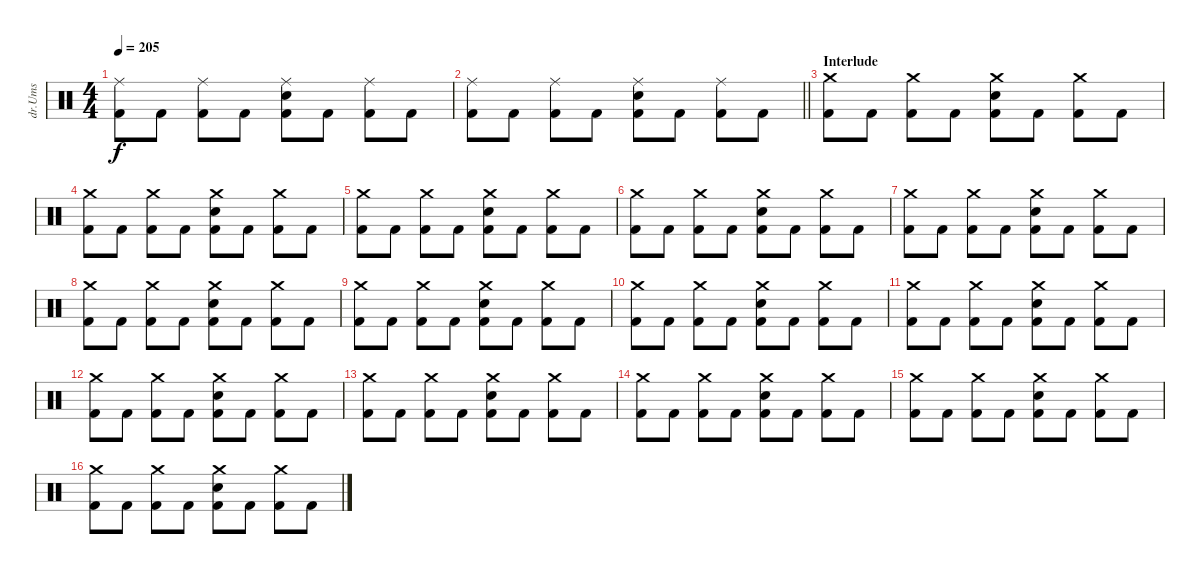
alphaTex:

\track ("dr.Ums" "dr.Ums") {instrument percussion}
\staff {score}
\articulation defaults
\ts (4 4)
\tempo 205
\clef neutral
\ks c
("Ride (middle)" "Kick (hit) 2").8{dy f} "Kick (hit) 2".8 ("Ride (middle)" "Kick (hit) 2").8 "Kick (hit) 2".8 ("Ride (middle)" "Snare (hit) 2" "Kick (hit) 2").8 "Kick (hit) 2".8 ("Ride (middle)" "Kick (hit) 2").8 "Kick (hit) 2".8 |
\barLineRight lightlight
("Ride (middle)" "Kick (hit) 2").8 "Kick (hit) 2".8 ("Ride (middle)" "Kick (hit) 2").8 "Kick (hit) 2".8 ("Ride (middle)" "Snare (hit) 2" "Kick (hit) 2").8 "Kick (hit) 2".8 ("Ride (middle)" "Kick (hit) 2").8 "Kick (hit) 2".8 |
\section ("" "Interlude")
("Crash medium (hit)" "Kick (hit) 2").8 "Kick (hit) 2".8 ("Crash medium (hit)" "Kick (hit) 2").8 "Kick (hit) 2".8 ("Crash medium (hit)" "Snare (hit) 2" "Kick (hit) 2").8 "Kick (hit) 2".8 ("Crash medium (hit)" "Kick (hit) 2").8 "Kick (hit) 2".8 |
("Crash medium (hit)" "Kick (hit) 2").8 "Kick (hit) 2".8 ("Crash medium (hit)" "Kick (hit) 2").8 "Kick (hit) 2".8 ("Crash medium (hit)" "Snare (hit) 2" "Kick (hit) 2").8 "Kick (hit) 2".8 ("Crash medium (hit)" "Kick (hit) 2").8 "Kick (hit) 2".8 |
("Crash medium (hit)" "Kick (hit) 2").8 "Kick (hit) 2".8 ("Crash medium (hit)" "Kick (hit) 2").8 "Kick (hit) 2".8 ("Crash medium (hit)" "Snare (hit) 2" "Kick (hit) 2").8 "Kick (hit) 2".8 ("Crash medium (hit)" "Kick (hit) 2").8 "Kick (hit) 2".8 |
("Crash medium (hit)" "Kick (hit) 2").8 "Kick (hit) 2".8 ("Crash medium (hit)" "Kick (hit) 2").8 "Kick (hit) 2".8 ("Crash medium (hit)" "Snare (hit) 2" "Kick (hit) 2").8 "Kick (hit) 2".8 ("Crash medium (hit)" "Kick (hit) 2").8 "Kick (hit) 2".8 |
("Crash medium (hit)" "Kick (hit) 2").8 "Kick (hit) 2".8 ("Crash medium (hit)" "Kick (hit) 2").8 "Kick (hit) 2".8 ("Crash medium (hit)" "Snare (hit) 2" "Kick (hit) 2").8 "Kick (hit) 2".8 ("Crash medium (hit)" "Kick (hit) 2").8 "Kick (hit) 2".8 |
("Crash medium (hit)" "Kick (hit) 2").8 "Kick (hit) 2".8 ("Crash medium (hit)" "Kick (hit) 2").8 "Kick (hit) 2".8 ("Crash medium (hit)" "Snare (hit) 2" "Kick (hit) 2").8 "Kick (hit) 2".8 ("Crash medium (hit)" "Kick (hit) 2").8 "Kick (hit) 2".8 |
("Crash medium (hit)" "Kick (hit) 2").8 "Kick (hit) 2".8 ("Crash medium (hit)" "Kick (hit) 2").8 "Kick (hit) 2".8 ("Crash medium (hit)" "Snare (hit) 2" "Kick (hit) 2").8 "Kick (hit) 2".8 ("Crash medium (hit)" "Kick (hit) 2").8 "Kick (hit) 2".8 |
("Crash medium (hit)" "Kick (hit) 2").8 "Kick (hit) 2".8 ("Crash medium (hit)" "Kick (hit) 2").8 "Kick (hit) 2".8 ("Crash medium (hit)" "Snare (hit) 2" "Kick (hit) 2").8 "Kick (hit) 2".8 ("Crash medium (hit)" "Kick (hit) 2").8 "Kick (hit) 2".8 |
("Crash medium (hit)" "Kick (hit) 2").8 "Kick (hit) 2".8 ("Crash medium (hit)" "Kick (hit) 2").8 "Kick (hit) 2".8 ("Crash medium (hit)" "Snare (hit) 2" "Kick (hit) 2").8 "Kick (hit) 2".8 ("Crash medium (hit)" "Kick (hit) 2").8 "Kick (hit) 2".8 |
("Crash medium (hit)" "Kick (hit) 2").8 "Kick (hit) 2".8 ("Crash medium (hit)" "Kick (hit) 2").8 "Kick (hit) 2".8 ("Crash medium (hit)" "Snare (hit) 2" "Kick (hit) 2").8 "Kick (hit) 2".8 ("Crash medium (hit)" "Kick (hit) 2").8 "Kick (hit) 2".8 |
("Crash medium (hit)" "Kick (hit) 2").8 "Kick (hit) 2".8 ("Crash medium (hit)" "Kick (hit) 2").8 "Kick (hit) 2".8 ("Crash medium (hit)" "Snare (hit) 2" "Kick (hit) 2").8 "Kick (hit) 2".8 ("Crash medium (hit)" "Kick (hit) 2").8 "Kick (hit) 2".8 |
("Crash medium (hit)" "Kick (hit) 2").8 "Kick (hit) 2".8 ("Crash medium (hit)" "Kick (hit) 2").8 "Kick (hit) 2".8 ("Crash medium (hit)" "Snare (hit) 2" "Kick (hit) 2").8 "Kick (hit) 2".8 ("Crash medium (hit)" "Kick (hit) 2").8 "Kick (hit) 2".8 |
("Crash medium (hit)" "Kick (hit) 2").8 "Kick (hit) 2".8 ("Crash medium (hit)" "Kick (hit) 2").8 "Kick (hit) 2".8 ("Crash medium (hit)" "Snare (hit) 2" "Kick (hit) 2").8 "Kick (hit) 2".8 ("Crash medium (hit)" "Kick (hit) 2").8 "Kick (hit) 2".8 |
("Crash medium (hit)" "Kick (hit) 2").8 "Kick (hit) 2".8 ("Crash medium (hit)" "Kick (hit) 2").8 "Kick (hit) 2".8 ("Crash medium (hit)" "Snare (hit) 2" "Kick (hit) 2").8 "Kick (hit) 2".8 ("Crash medium (hit)" "Kick (hit) 2").8 "Kick (hit) 2".8
